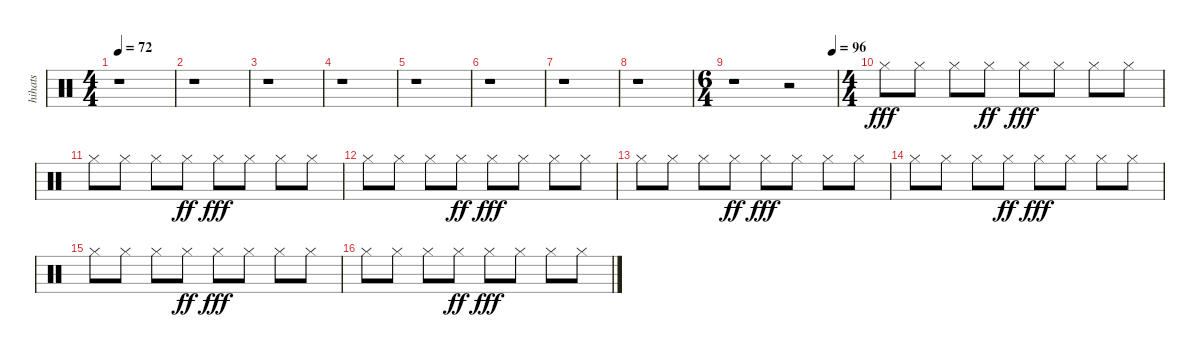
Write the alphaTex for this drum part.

\track ("hihats" "hihats") {instrument percussion}
\staff {score}
\articulation defaults
\ts (4 4)
\tempo 72
\clef neutral
\ks c
r.1{dy fff} |
r.1 |
r.1 |
r.1 |
r.1 |
r.1 |
r.1 |
r.1 |
\ts (6 4)
\tempo (96 0.9583333333333334)
r.1 r.2 |
\ts (4 4)
"Hi-Hat (closed)".8 "Hi-Hat (closed)".8 "Hi-Hat (closed)".8 "Hi-Hat (closed)".8{dy ff} "Hi-Hat (closed)".8{dy fff} "Hi-Hat (closed)".8 "Hi-Hat (closed)".8 "Hi-Hat (closed)".8 |
"Hi-Hat (closed)".8 "Hi-Hat (closed)".8 "Hi-Hat (closed)".8 "Hi-Hat (closed)".8{dy ff} "Hi-Hat (closed)".8{dy fff} "Hi-Hat (closed)".8 "Hi-Hat (closed)".8 "Hi-Hat (closed)".8 |
"Hi-Hat (closed)".8 "Hi-Hat (closed)".8 "Hi-Hat (closed)".8 "Hi-Hat (closed)".8{dy ff} "Hi-Hat (closed)".8{dy fff} "Hi-Hat (closed)".8 "Hi-Hat (closed)".8 "Hi-Hat (closed)".8 |
"Hi-Hat (closed)".8 "Hi-Hat (closed)".8 "Hi-Hat (closed)".8 "Hi-Hat (closed)".8{dy ff} "Hi-Hat (closed)".8{dy fff} "Hi-Hat (closed)".8 "Hi-Hat (closed)".8 "Hi-Hat (closed)".8 |
"Hi-Hat (closed)".8 "Hi-Hat (closed)".8 "Hi-Hat (closed)".8 "Hi-Hat (closed)".8{dy ff} "Hi-Hat (closed)".8{dy fff} "Hi-Hat (closed)".8 "Hi-Hat (closed)".8 "Hi-Hat (closed)".8 |
"Hi-Hat (closed)".8 "Hi-Hat (closed)".8 "Hi-Hat (closed)".8 "Hi-Hat (closed)".8{dy ff} "Hi-Hat (closed)".8{dy fff} "Hi-Hat (closed)".8 "Hi-Hat (closed)".8 "Hi-Hat (closed)".8 |
"Hi-Hat (closed)".8 "Hi-Hat (closed)".8 "Hi-Hat (closed)".8 "Hi-Hat (closed)".8{dy ff} "Hi-Hat (closed)".8{dy fff} "Hi-Hat (closed)".8 "Hi-Hat (closed)".8 "Hi-Hat (closed)".8
